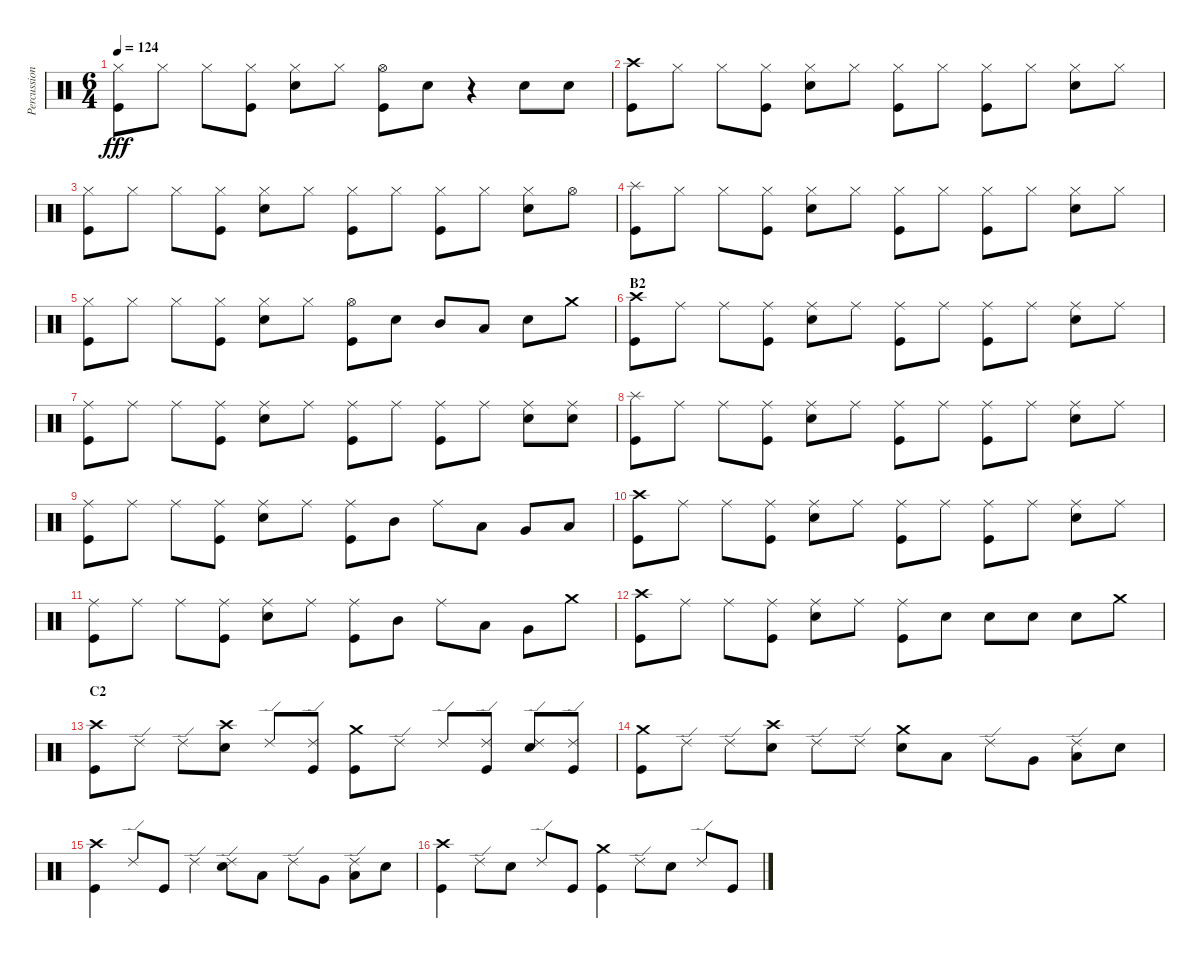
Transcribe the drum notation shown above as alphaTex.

\track ("Percussion" "Percussion") {instrument percussion}
\staff {score}
\articulation defaults
\ts (6 4)
\tempo 124
\clef neutral
\ks c
("Hi-Hat (closed)" "Kick (hit)").8{dy fff} "Hi-Hat (closed)".8 "Hi-Hat (closed)".8 ("Hi-Hat (closed)" "Kick (hit)").8 ("Hi-Hat (closed)" "Snare (hit) 2").8 "Hi-Hat (closed)".8 ("Hi-Hat (open)" "Kick (hit)").8 "Snare (hit) 2".8 r.4 "Snare (hit) 2".8 "Snare (hit) 2".8 |
("Crash high (hit)" "Kick (hit)").8 "Hi-Hat (closed)".8 "Hi-Hat (closed)".8 ("Hi-Hat (closed)" "Kick (hit)").8 ("Hi-Hat (closed)" "Snare (hit) 2").8 "Hi-Hat (closed)".8 ("Hi-Hat (closed)" "Kick (hit)").8 "Hi-Hat (closed)".8 ("Hi-Hat (closed)" "Kick (hit)").8 "Hi-Hat (closed)".8 ("Hi-Hat (closed)" "Snare (hit) 2").8 "Hi-Hat (closed)".8 |
("Hi-Hat (closed)" "Kick (hit)").8 "Hi-Hat (closed)".8 "Hi-Hat (closed)".8 ("Hi-Hat (closed)" "Kick (hit)").8 ("Hi-Hat (closed)" "Snare (hit) 2").8 "Hi-Hat (closed)".8 ("Hi-Hat (closed)" "Kick (hit)").8 "Hi-Hat (closed)".8 ("Hi-Hat (closed)" "Kick (hit)").8 "Hi-Hat (closed)".8 ("Hi-Hat (closed)" "Snare (hit) 2").8 "Hi-Hat (open)".8 |
("Splash (hit)" "Kick (hit)").8 "Hi-Hat (closed)".8 "Hi-Hat (closed)".8 ("Hi-Hat (closed)" "Kick (hit)").8 ("Hi-Hat (closed)" "Snare (hit) 2").8 "Hi-Hat (closed)".8 ("Hi-Hat (closed)" "Kick (hit)").8 "Hi-Hat (closed)".8 ("Hi-Hat (closed)" "Kick (hit)").8 "Hi-Hat (closed)".8 ("Hi-Hat (closed)" "Snare (hit) 2").8 "Hi-Hat (closed)".8 |
("Hi-Hat (closed)" "Kick (hit)").8 "Hi-Hat (closed)".8 "Hi-Hat (closed)".8 ("Hi-Hat (closed)" "Kick (hit)").8 ("Hi-Hat (closed)" "Snare (hit) 2").8 "Hi-Hat (closed)".8 ("Hi-Hat (open)" "Kick (hit)").8 "Snare (hit) 2".8 "Mid Tom (hit)".8 "Low Tom (hit)".8 "Snare (hit) 2".8 "Crash medium (hit)".8 |
\section ("" "B2")
("Crash high (hit)" "Kick (hit)").8 "Ride (middle)".8 "Ride (middle)".8 ("Ride (middle)" "Kick (hit)").8 ("Ride (middle)" "Snare (hit) 2").8 "Ride (middle)".8 ("Ride (middle)" "Kick (hit)").8 "Ride (middle)".8 ("Ride (middle)" "Kick (hit)").8 "Ride (middle)".8 ("Ride (middle)" "Snare (hit) 2").8 "Ride (middle)".8 |
("Ride (middle)" "Kick (hit)").8 "Ride (middle)".8 "Ride (middle)".8 ("Ride (middle)" "Kick (hit)").8 ("Ride (middle)" "Snare (hit) 2").8 "Ride (middle)".8 ("Ride (middle)" "Kick (hit)").8 "Ride (middle)".8 ("Ride (middle)" "Kick (hit)").8 "Ride (middle)".8 ("Ride (middle)" "Snare (hit) 2").8 ("Ride (middle)" "Snare (hit) 2").8 |
("Splash (hit)" "Kick (hit)").8 "Ride (middle)".8 "Ride (middle)".8 ("Ride (middle)" "Kick (hit)").8 ("Ride (middle)" "Snare (hit) 2").8 "Ride (middle)".8 ("Ride (middle)" "Kick (hit)").8 "Ride (middle)".8 ("Ride (middle)" "Kick (hit)").8 "Ride (middle)".8 ("Ride (middle)" "Snare (hit) 2").8 "Ride (middle)".8 |
("Ride (middle)" "Kick (hit)").8 "Ride (middle)".8 "Ride (middle)".8 ("Ride (middle)" "Kick (hit)").8 ("Ride (middle)" "Snare (hit) 2").8 "Ride (middle)".8 ("Ride (middle)" "Kick (hit)").8 "Mid Tom (hit)".8 "Ride (middle)".8 "Low Tom (hit)".8 "Very Low Tom (hit)".8 "Low Floor Tom (hit)".8 |
("Crash high (hit)" "Kick (hit)").8 "Ride (middle)".8 "Ride (middle)".8 ("Ride (middle)" "Kick (hit)").8 ("Ride (middle)" "Snare (hit) 2").8 "Ride (middle)".8 ("Ride (middle)" "Kick (hit)").8 "Ride (middle)".8 ("Ride (middle)" "Kick (hit)").8 "Ride (middle)".8 ("Ride (middle)" "Snare (hit) 2").8 "Ride (middle)".8 |
("Ride (middle)" "Kick (hit)").8 "Ride (middle)".8 "Ride (middle)".8 ("Ride (middle)" "Kick (hit)").8 ("Ride (middle)" "Snare (hit) 2").8 "Ride (middle)".8 ("Ride (middle)" "Kick (hit)").8 "Mid Tom (hit)".8 "Ride (middle)".8 "Low Tom (hit)".8 "Very Low Tom (hit)".8 "Crash medium (hit)".8 |
("Crash high (hit)" "Kick (hit)").8 "Ride (middle)".8 "Ride (middle)".8 ("Ride (middle)" "Kick (hit)").8 ("Ride (middle)" "Snare (hit) 2").8 "Ride (middle)".8 ("Ride (middle)" "Kick (hit)").8 "Snare (hit) 2".8 "Snare (hit) 2".8 "Snare (hit) 2".8 "Snare (hit) 2".8 "Crash medium (hit)".8 |
\section ("" "C2")
("Crash high (hit)" "Kick (hit)").8 "Ride (edge) 2".8 "Ride (edge) 2".8 ("Crash high (hit)" "Snare (hit) 2").8 "Ride (edge) 2".8 ("Ride (edge) 2" "Kick (hit)").8 ("Crash medium (hit)" "Kick (hit)").8 "Ride (edge) 2".8 "Ride (edge) 2".8 ("Ride (edge) 2" "Kick (hit)").8 ("Ride (edge) 2" "Snare (hit) 2").8 ("Ride (edge) 2" "Kick (hit)").8 |
("Crash medium (hit)" "Kick (hit)").8 "Ride (edge) 2".8 "Ride (edge) 2".8 ("Crash high (hit)" "Snare (hit) 2").8 "Ride (edge) 2".8 "Ride (edge) 2".8 ("Crash medium (hit)" "Snare (hit) 2").8 "Low Tom (hit)".8 "Ride (edge) 2".8 "Very Low Tom (hit)".8 ("Ride (edge) 2" "Low Floor Tom (hit)").8 "Snare (hit) 2".8 |
("Crash high (hit)" "Kick (hit)").4 "Ride (edge) 2".8 "Kick (hit)".8 "Ride (edge) 2".4 ("Ride (edge) 2" "Snare (hit) 2").8 "Low Tom (hit)".8 "Ride (edge) 2".8 "Very Low Tom (hit)".8 ("Ride (edge) 2" "Low Floor Tom (hit)").8 "Snare (hit) 2".8 |
("Crash high (hit)" "Kick (hit)").4 "Ride (edge) 2".8 "Snare (hit) 2".8 "Ride (edge) 2".8 "Kick (hit)".8 ("Crash medium (hit)" "Kick (hit)").4 "Ride (edge) 2".8 "Snare (hit) 2".8 "Ride (edge) 2".8 "Kick (hit)".8
